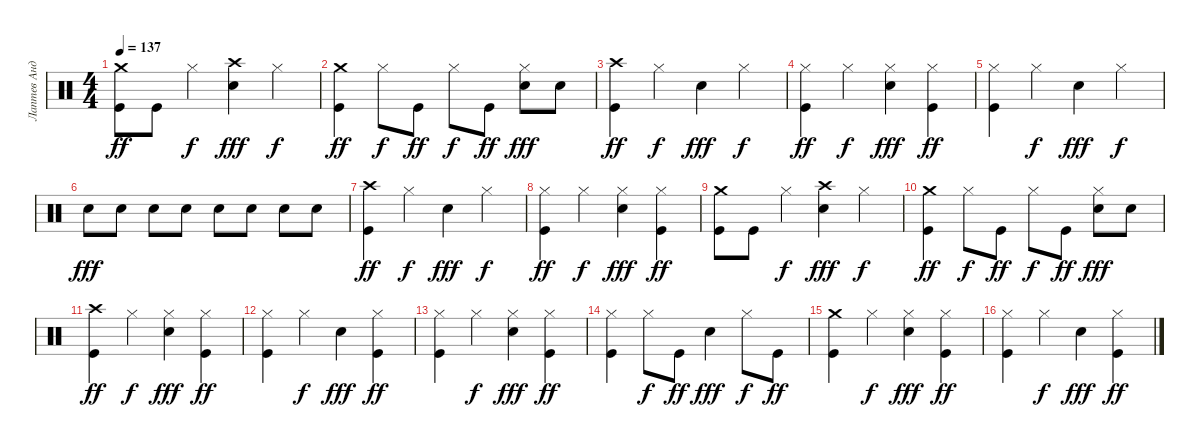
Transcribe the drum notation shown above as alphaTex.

\track ("Лаптев Андрей" "Лаптев Анд") {instrument percussion}
\staff {score}
\articulation defaults
\ts (4 4)
\tempo 137
\clef neutral
\ks c
("Crash medium (hit)" "Kick (hit)").8{dy ff} "Kick (hit)".8 "Hi-Hat (closed)".4{dy f} ("Crash high (hit)" "Snare (hit) 2").4{dy fff} "Hi-Hat (closed)".4{dy f} |
("Crash medium (hit)" "Kick (hit)").4{dy ff} "Hi-Hat (closed)".8{dy f} "Kick (hit)".8{dy ff} "Hi-Hat (closed)".8{dy f} "Kick (hit)".8{dy ff} ("Snare (hit) 2" "Hi-Hat (closed)").8{dy fff} "Snare (hit) 2".8 |
("Crash high (hit)" "Kick (hit)").4{dy ff} "Hi-Hat (closed)".4{dy f} "Snare (hit) 2".4{dy fff} "Hi-Hat (closed)".4{dy f} |
("Kick (hit)" "Hi-Hat (closed)").4{dy ff} "Hi-Hat (closed)".4{dy f} ("Snare (hit) 2" "Hi-Hat (closed)").4{dy fff} ("Kick (hit)" "Hi-Hat (closed)").4{dy ff} |
("Kick (hit)" "Hi-Hat (closed)").4 "Hi-Hat (closed)".4{dy f} "Snare (hit) 2".4{dy fff} "Hi-Hat (closed)".4{dy f} |
"Snare (hit) 2".8{dy fff} "Snare (hit) 2".8 "Snare (hit) 2".8 "Snare (hit) 2".8 "Snare (hit) 2".8 "Snare (hit) 2".8 "Snare (hit) 2".8 "Snare (hit) 2".8 |
("Crash high (hit)" "Kick (hit)").4{dy ff} "Hi-Hat (closed)".4{dy f} "Snare (hit) 2".4{dy fff} "Hi-Hat (closed)".4{dy f} |
("Kick (hit)" "Hi-Hat (closed)").4{dy ff} "Hi-Hat (closed)".4{dy f} ("Snare (hit) 2" "Hi-Hat (closed)").4{dy fff} ("Kick (hit)" "Hi-Hat (closed)").4{dy ff} |
("Kick (hit)" "Crash medium (hit)").8 "Kick (hit)".8 "Hi-Hat (closed)".4{dy f} ("Crash high (hit)" "Snare (hit) 2").4{dy fff} "Hi-Hat (closed)".4{dy f} |
("Kick (hit)" "Crash medium (hit)").4{dy ff} "Hi-Hat (closed)".8{dy f} "Kick (hit)".8{dy ff} "Hi-Hat (closed)".8{dy f} "Kick (hit)".8{dy ff} ("Snare (hit) 2" "Hi-Hat (closed)").8{dy fff} "Snare (hit) 2".8 |
("Crash high (hit)" "Kick (hit)").4{dy ff} "Hi-Hat (closed)".4{dy f} ("Snare (hit) 2" "Hi-Hat (closed)").4{dy fff} ("Kick (hit)" "Hi-Hat (closed)").4{dy ff} |
("Kick (hit)" "Hi-Hat (closed)").4 "Hi-Hat (closed)".4{dy f} "Snare (hit) 2".4{dy fff} ("Kick (hit)" "Hi-Hat (closed)").4{dy ff} |
("Hi-Hat (closed)" "Kick (hit)").4 "Hi-Hat (closed)".4{dy f} ("Snare (hit) 2" "Hi-Hat (closed)").4{dy fff} ("Kick (hit)" "Hi-Hat (closed)").4{dy ff} |
("Kick (hit)" "Hi-Hat (closed)").4 "Hi-Hat (closed)".8{dy f} "Kick (hit)".8{dy ff} "Snare (hit) 2".4{dy fff} "Hi-Hat (closed)".8{dy f} "Kick (hit)".8{dy ff} |
("Crash medium (hit)" "Kick (hit)").4 "Hi-Hat (closed)".4{dy f} ("Snare (hit) 2" "Hi-Hat (closed)").4{dy fff} ("Kick (hit)" "Hi-Hat (closed)").4{dy ff} |
("Kick (hit)" "Hi-Hat (closed)").4 "Hi-Hat (closed)".4{dy f} "Snare (hit) 2".4{dy fff} ("Kick (hit)" "Hi-Hat (closed)").4{dy ff}
